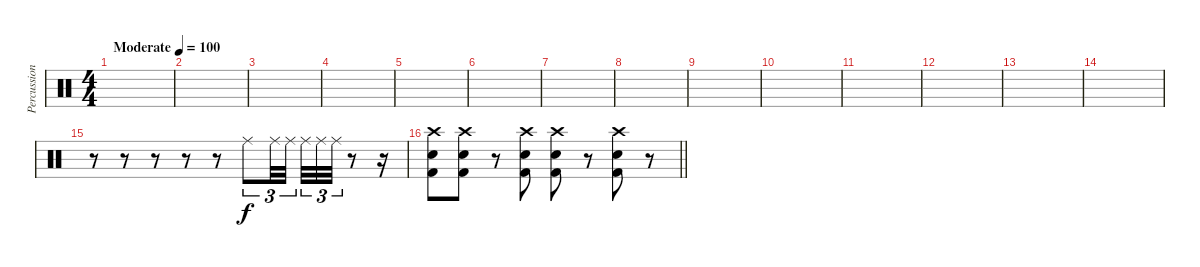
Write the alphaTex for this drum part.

\track ("Percussion" "Percussion") {instrument percussion}
\staff {score}
\articulation defaults
\ts (4 4)
\tempo (100 "Moderate")
\clef neutral
\ks c
|
|
|
|
|
|
|
|
|
|
|
|
|
|
r.8 r.8 r.8 r.8 r.8 "Ride (middle)".8{tu (3 2)} "Ride (middle)".32{tu (3 2)} "Ride (middle)".32{tu (3 2)} "Ride (middle)".32{tu (3 2)} "Ride (middle)".32{tu (3 2)} "Ride (middle)".32{tu (3 2)} r.8 r.16 |
\barLineRight lightlight
("Crash high (hit)" "Snare (hit) 2" "Kick (hit) 2").8 ("Crash high (hit)" "Snare (hit) 2" "Kick (hit) 2").8 r.8 ("Crash high (hit)" "Electric Snare (hit)" "Kick (hit) 2").8 ("Crash high (hit)" "Electric Snare (hit)" "Kick (hit) 2").8 r.8 ("Crash high (hit)" "Electric Snare (hit)" "Kick (hit) 2").8 r.8
